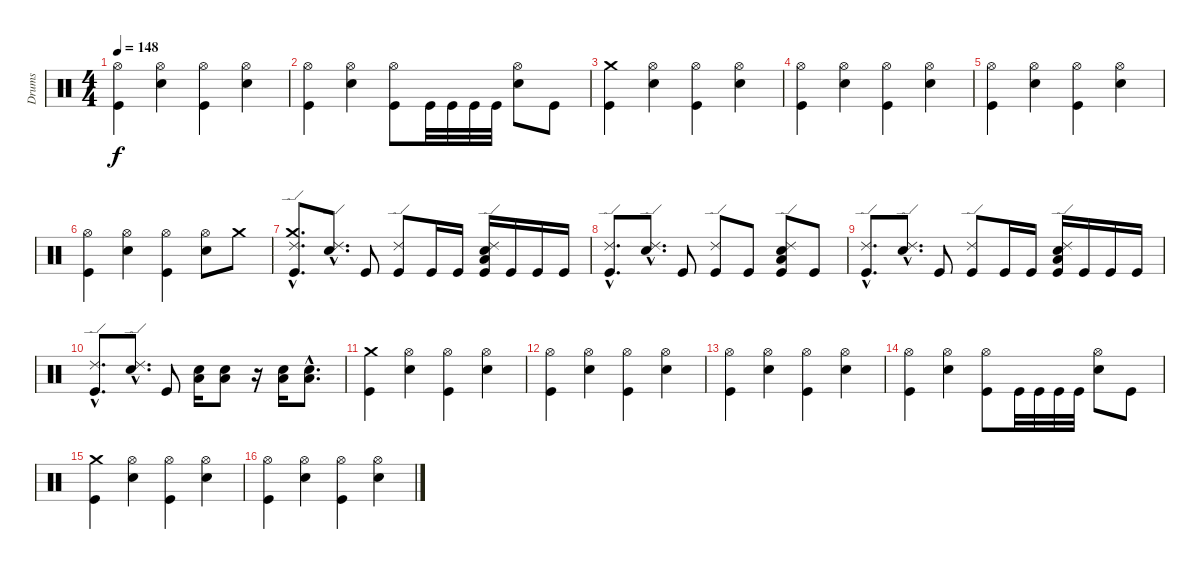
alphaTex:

\track ("Drums" "Drums") {instrument percussion}
\staff {score}
\articulation defaults
\ts (4 4)
\tempo 148
\clef neutral
\ks c
("Kick (hit)" "Hi-Hat (open)").4{dy f} ("Snare (hit) 2" "Hi-Hat (open)").4 ("Kick (hit)" "Hi-Hat (open)").4 ("Snare (hit) 2" "Hi-Hat (open)").4 |
("Kick (hit)" "Hi-Hat (open)").4 ("Snare (hit) 2" "Hi-Hat (open)").4 ("Kick (hit)" "Hi-Hat (open)").8 "Kick (hit)".32 "Kick (hit)".32 "Kick (hit)".32 "Kick (hit)".32 ("Snare (hit) 2" "Hi-Hat (open)").8 "Kick (hit)".8 |
("Kick (hit)" "Crash medium (hit)").4 ("Snare (hit) 2" "Hi-Hat (open)").4 ("Kick (hit)" "Hi-Hat (open)").4 ("Snare (hit) 2" "Hi-Hat (open)").4 |
("Kick (hit)" "Hi-Hat (open)").4 ("Snare (hit) 2" "Hi-Hat (open)").4 ("Kick (hit)" "Hi-Hat (open)").4 ("Snare (hit) 2" "Hi-Hat (open)").4 |
("Kick (hit)" "Hi-Hat (open)").4 ("Snare (hit) 2" "Hi-Hat (open)").4 ("Kick (hit)" "Hi-Hat (open)").4 ("Snare (hit) 2" "Hi-Hat (open)").4 |
("Kick (hit)" "Hi-Hat (open)").4 ("Snare (hit) 2" "Hi-Hat (open)").4 ("Kick (hit)" "Hi-Hat (open)").4 ("Snare (hit) 2" "Hi-Hat (open)").8 "Crash medium (hit)".8 |
("Kick (hit)"{hac} "Crash medium (hit)"{hac} "Ride (edge) 2"{hac}).8{d} ("Snare (hit) 2"{hac} "Ride (edge) 2"{hac}).8{d} "Kick (hit)".8 ("Kick (hit)" "Ride (edge) 2").8 "Kick (hit)".16 "Kick (hit)".16 ("Kick (hit)" "Snare (hit) 2" "Low Floor Tom (hit)" "Ride (edge) 2").16 "Kick (hit)".16 "Kick (hit)".16 "Kick (hit)".16 |
("Kick (hit)"{hac} "Ride (edge) 2"{hac}).8{d} ("Snare (hit) 2"{hac} "Ride (edge) 2"{hac}).8{d} "Kick (hit)".8 ("Kick (hit)" "Ride (edge) 2").8 "Kick (hit)".8 ("Kick (hit)" "Snare (hit) 2" "Low Floor Tom (hit)" "Ride (edge) 2").8 "Kick (hit)".8 |
("Kick (hit)"{hac} "Ride (edge) 2"{hac}).8{d} ("Snare (hit) 2"{hac} "Ride (edge) 2"{hac}).8{d} "Kick (hit)".8 ("Kick (hit)" "Ride (edge) 2").8 "Kick (hit)".16 "Kick (hit)".16 ("Kick (hit)" "Snare (hit) 2" "Low Floor Tom (hit)" "Ride (edge) 2").16 "Kick (hit)".16 "Kick (hit)".16 "Kick (hit)".16 |
("Kick (hit)"{hac} "Ride (edge) 2"{hac}).8{d} ("Snare (hit) 2"{hac} "Ride (edge) 2"{hac}).8{d} "Kick (hit)".8 ("Snare (hit) 2" "Low Floor Tom (hit)").16 ("Snare (hit) 2" "Low Floor Tom (hit)").8 r.16 ("Snare (hit) 2" "Low Floor Tom (hit)").16 ("Snare (hit) 2"{hac} "Low Floor Tom (hit)"{hac}).8{d} |
("Kick (hit)" "Crash medium (hit)").4 ("Snare (hit) 2" "Hi-Hat (open)").4 ("Kick (hit)" "Hi-Hat (open)").4 ("Snare (hit) 2" "Hi-Hat (open)").4 |
("Kick (hit)" "Hi-Hat (open)").4 ("Snare (hit) 2" "Hi-Hat (open)").4 ("Kick (hit)" "Hi-Hat (open)").4 ("Snare (hit) 2" "Hi-Hat (open)").4 |
("Kick (hit)" "Hi-Hat (open)").4 ("Snare (hit) 2" "Hi-Hat (open)").4 ("Kick (hit)" "Hi-Hat (open)").4 ("Snare (hit) 2" "Hi-Hat (open)").4 |
("Kick (hit)" "Hi-Hat (open)").4 ("Snare (hit) 2" "Hi-Hat (open)").4 ("Kick (hit)" "Hi-Hat (open)").8 "Kick (hit)".32 "Kick (hit)".32 "Kick (hit)".32 "Kick (hit)".32 ("Snare (hit) 2" "Hi-Hat (open)").8 "Kick (hit)".8 |
("Kick (hit)" "Crash medium (hit)").4 ("Snare (hit) 2" "Hi-Hat (open)").4 ("Kick (hit)" "Hi-Hat (open)").4 ("Snare (hit) 2" "Hi-Hat (open)").4 |
("Kick (hit)" "Hi-Hat (open)").4 ("Snare (hit) 2" "Hi-Hat (open)").4 ("Kick (hit)" "Hi-Hat (open)").4 ("Snare (hit) 2" "Hi-Hat (open)").4
